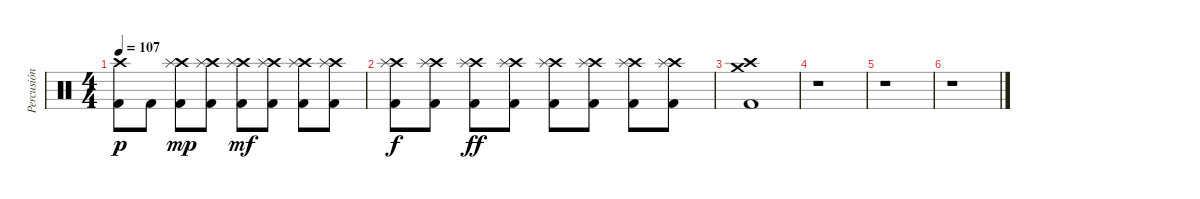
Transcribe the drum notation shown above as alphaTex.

\track ("Percusión" "Percusión") {instrument percussion}
\staff {score}
\articulation defaults
\ts (4 4)
\tempo 107
\clef neutral
\ks c
("Crash high (hit)" "Kick (hit) 2").8{dy p} "Kick (hit) 2".8 ("Crash high (hit)" "Splash (hit)" "Kick (hit) 2").8{dy mp} ("Crash high (hit)" "Splash (hit)" "Kick (hit) 2").8 ("Crash high (hit)" "Splash (hit)" "Kick (hit) 2").8{dy mf} ("Crash high (hit)" "Splash (hit)" "Kick (hit) 2").8 ("Crash high (hit)" "Splash (hit)" "Kick (hit) 2").8 ("Crash high (hit)" "Splash (hit)" "Kick (hit) 2").8 |
("Crash high (hit)" "Splash (hit)" "Kick (hit) 2").8{dy f} ("Crash high (hit)" "Splash (hit)" "Kick (hit) 2").8 ("Crash high (hit)" "Splash (hit)" "Kick (hit) 2").8{dy ff} ("Crash high (hit)" "Splash (hit)" "Kick (hit) 2").8 ("Crash high (hit)" "Splash (hit)" "Kick (hit) 2").8 ("Crash high (hit)" "Splash (hit)" "Kick (hit) 2").8 ("Crash high (hit)" "Splash (hit)" "Kick (hit) 2").8 ("Crash high (hit)" "Splash (hit)" "Kick (hit) 2").8 |
("Crash high (hit)" "Crash medium (hit)" "Kick (hit) 2").1 |
r.1 |
r.1 |
r.1
